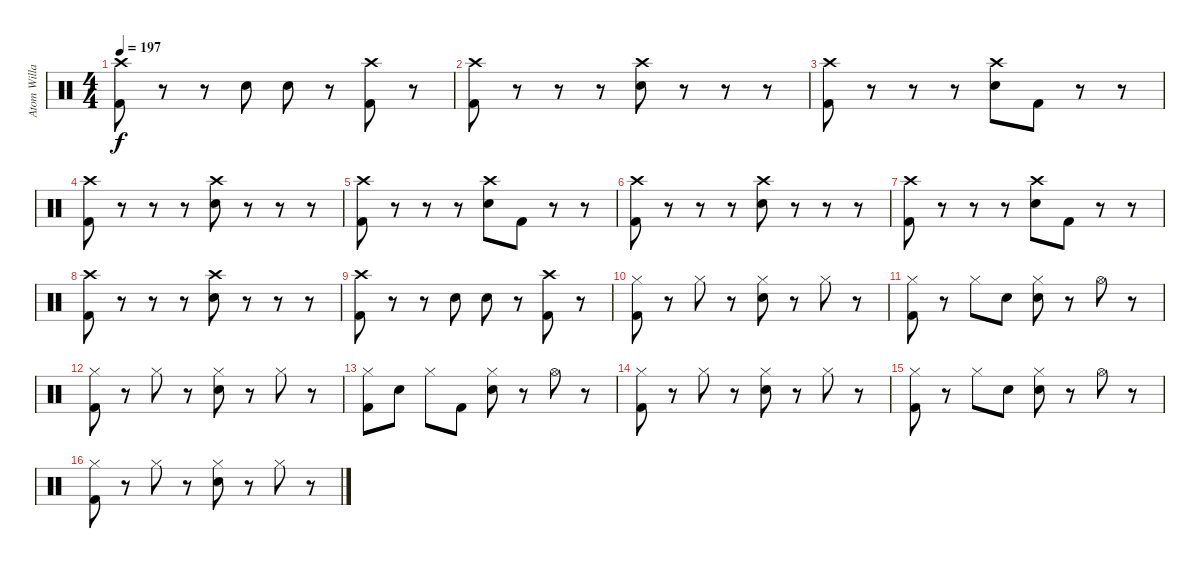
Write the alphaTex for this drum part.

\track ("Atom Willard Drums" "Atom Willa") {instrument percussion}
\staff {score}
\articulation defaults
\ts (4 4)
\tempo 197
\clef neutral
\ks c
("Crash high (hit)" "Kick (hit) 2").8{dy f} r.8 r.8 "Electric Snare (hit)".8 "Electric Snare (hit)".8 r.8 ("Crash high (hit)" "Kick (hit) 2").8 r.8 |
("Crash high (hit)" "Kick (hit) 2").8 r.8 r.8 r.8 ("Crash high (hit)" "Electric Snare (hit)").8 r.8 r.8 r.8 |
("Crash high (hit)" "Kick (hit) 2").8 r.8 r.8 r.8 ("Crash high (hit)" "Electric Snare (hit)").8 "Kick (hit) 2".8 r.8 r.8 |
("Crash high (hit)" "Kick (hit) 2").8 r.8 r.8 r.8 ("Crash high (hit)" "Electric Snare (hit)").8 r.8 r.8 r.8 |
("Crash high (hit)" "Kick (hit) 2").8 r.8 r.8 r.8 ("Crash high (hit)" "Electric Snare (hit)").8 "Kick (hit) 2".8 r.8 r.8 |
("Crash high (hit)" "Kick (hit) 2").8 r.8 r.8 r.8 ("Crash high (hit)" "Electric Snare (hit)").8 r.8 r.8 r.8 |
("Crash high (hit)" "Kick (hit) 2").8 r.8 r.8 r.8 ("Crash high (hit)" "Electric Snare (hit)").8 "Kick (hit) 2".8 r.8 r.8 |
("Crash high (hit)" "Kick (hit) 2").8 r.8 r.8 r.8 ("Crash high (hit)" "Electric Snare (hit)").8 r.8 r.8 r.8 |
("Crash high (hit)" "Kick (hit) 2").8 r.8 r.8 "Electric Snare (hit)".8 "Electric Snare (hit)".8 r.8 ("Crash high (hit)" "Kick (hit) 2").8 r.8 |
("Hi-Hat (closed)" "Kick (hit) 2").8 r.8 "Hi-Hat (closed)".8 r.8 ("Hi-Hat (closed)" "Electric Snare (hit)").8 r.8 "Hi-Hat (closed)".8 r.8 |
("Hi-Hat (closed)" "Kick (hit) 2").8 r.8 "Hi-Hat (closed)".8 "Electric Snare (hit)".8 ("Hi-Hat (closed)" "Electric Snare (hit)").8 r.8 "Hi-Hat (open)".8 r.8 |
("Hi-Hat (closed)" "Kick (hit) 2").8 r.8 "Hi-Hat (closed)".8 r.8 ("Hi-Hat (closed)" "Electric Snare (hit)").8 r.8 "Hi-Hat (closed)".8 r.8 |
("Hi-Hat (closed)" "Kick (hit) 2").8 "Electric Snare (hit)".8 "Hi-Hat (closed)".8 "Kick (hit) 2".8 ("Hi-Hat (closed)" "Electric Snare (hit)").8 r.8 "Hi-Hat (open)".8 r.8 |
("Hi-Hat (closed)" "Kick (hit) 2").8 r.8 "Hi-Hat (closed)".8 r.8 ("Hi-Hat (closed)" "Electric Snare (hit)").8 r.8 "Hi-Hat (closed)".8 r.8 |
("Hi-Hat (closed)" "Kick (hit) 2").8 r.8 "Hi-Hat (closed)".8 "Electric Snare (hit)".8 ("Hi-Hat (closed)" "Electric Snare (hit)").8 r.8 "Hi-Hat (open)".8 r.8 |
("Hi-Hat (closed)" "Kick (hit) 2").8 r.8 "Hi-Hat (closed)".8 r.8 ("Hi-Hat (closed)" "Electric Snare (hit)").8 r.8 "Hi-Hat (closed)".8 r.8
